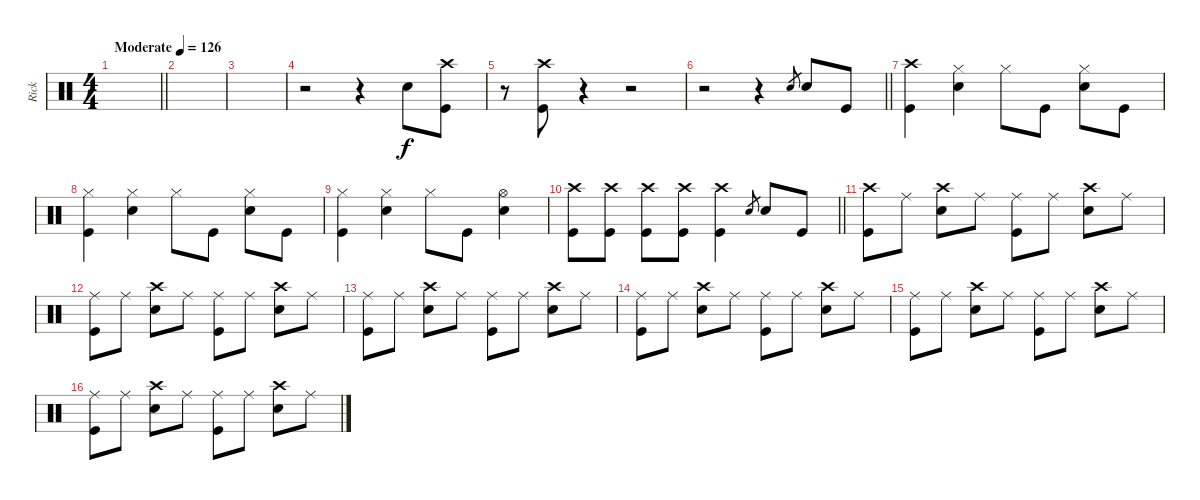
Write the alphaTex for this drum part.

\track ("Rick" "Rick") {instrument percussion}
\staff {score}
\articulation defaults
\ts (4 4)
\tempo (126 "Moderate")
\clef neutral
\barLineRight lightlight
\ks aminor
|
|
|
r.2 r.4 "Snare (hit) 2".8 ("Crash high (hit)" "Kick (hit)").8 |
r.8 ("Crash high (hit)" "Kick (hit)").8 r.4 r.2 |
\barLineRight lightlight
r.2 r.4 "Snare (hit) 2".8{gr} "Snare (hit) 2".8 "Kick (hit)".8 |
("Crash high (hit)" "Kick (hit)").4 ("Hi-Hat (closed)" "Snare (hit) 2").4 "Hi-Hat (closed)".8 "Kick (hit)".8 ("Hi-Hat (closed)" "Snare (hit) 2").8 "Kick (hit)".8 |
("Hi-Hat (closed)" "Kick (hit)").4 ("Hi-Hat (closed)" "Snare (hit) 2").4 "Hi-Hat (closed)".8 "Kick (hit)".8 ("Hi-Hat (closed)" "Snare (hit) 2").8 "Kick (hit)".8 |
("Hi-Hat (closed)" "Kick (hit)").4 ("Hi-Hat (closed)" "Snare (hit) 2").4 "Hi-Hat (closed)".8 "Kick (hit)".8 ("Hi-Hat (open)" "Snare (hit) 2").4 |
\barLineRight lightlight
("Crash high (hit)" "Kick (hit)").8 ("Crash high (hit)" "Kick (hit)").8 ("Crash high (hit)" "Kick (hit)").8 ("Crash high (hit)" "Kick (hit)").8 ("Crash high (hit)" "Kick (hit)").4 "Snare (hit) 2".8{gr} "Snare (hit) 2".8 "Kick (hit)".8 |
("Crash high (hit)" "Kick (hit)").8 "Ride (middle)".8 ("Crash high (hit)" "Snare (hit) 2").8 "Ride (middle)".8 ("Ride (middle)" "Kick (hit)").8 "Ride (middle)".8 ("Crash high (hit)" "Snare (hit) 2").8 "Ride (middle)".8 |
("Ride (middle)" "Kick (hit)").8 "Ride (middle)".8 ("Crash high (hit)" "Snare (hit) 2").8 "Ride (middle)".8 ("Ride (middle)" "Kick (hit)").8 "Ride (middle)".8 ("Crash high (hit)" "Snare (hit) 2").8 "Ride (middle)".8 |
("Ride (middle)" "Kick (hit)").8 "Ride (middle)".8 ("Crash high (hit)" "Snare (hit) 2").8 "Ride (middle)".8 ("Ride (middle)" "Kick (hit)").8 "Ride (middle)".8 ("Crash high (hit)" "Snare (hit) 2").8 "Ride (middle)".8 |
("Ride (middle)" "Kick (hit)").8 "Ride (middle)".8 ("Crash high (hit)" "Snare (hit) 2").8 "Ride (middle)".8 ("Ride (middle)" "Kick (hit)").8 "Ride (middle)".8 ("Crash high (hit)" "Snare (hit) 2").8 "Ride (middle)".8 |
("Ride (middle)" "Kick (hit)").8 "Ride (middle)".8 ("Crash high (hit)" "Snare (hit) 2").8 "Ride (middle)".8 ("Ride (middle)" "Kick (hit)").8 "Ride (middle)".8 ("Crash high (hit)" "Snare (hit) 2").8 "Ride (middle)".8 |
("Ride (middle)" "Kick (hit)").8 "Ride (middle)".8 ("Crash high (hit)" "Snare (hit) 2").8 "Ride (middle)".8 ("Ride (middle)" "Kick (hit)").8 "Ride (middle)".8 ("Crash high (hit)" "Snare (hit) 2").8 "Ride (middle)".8
